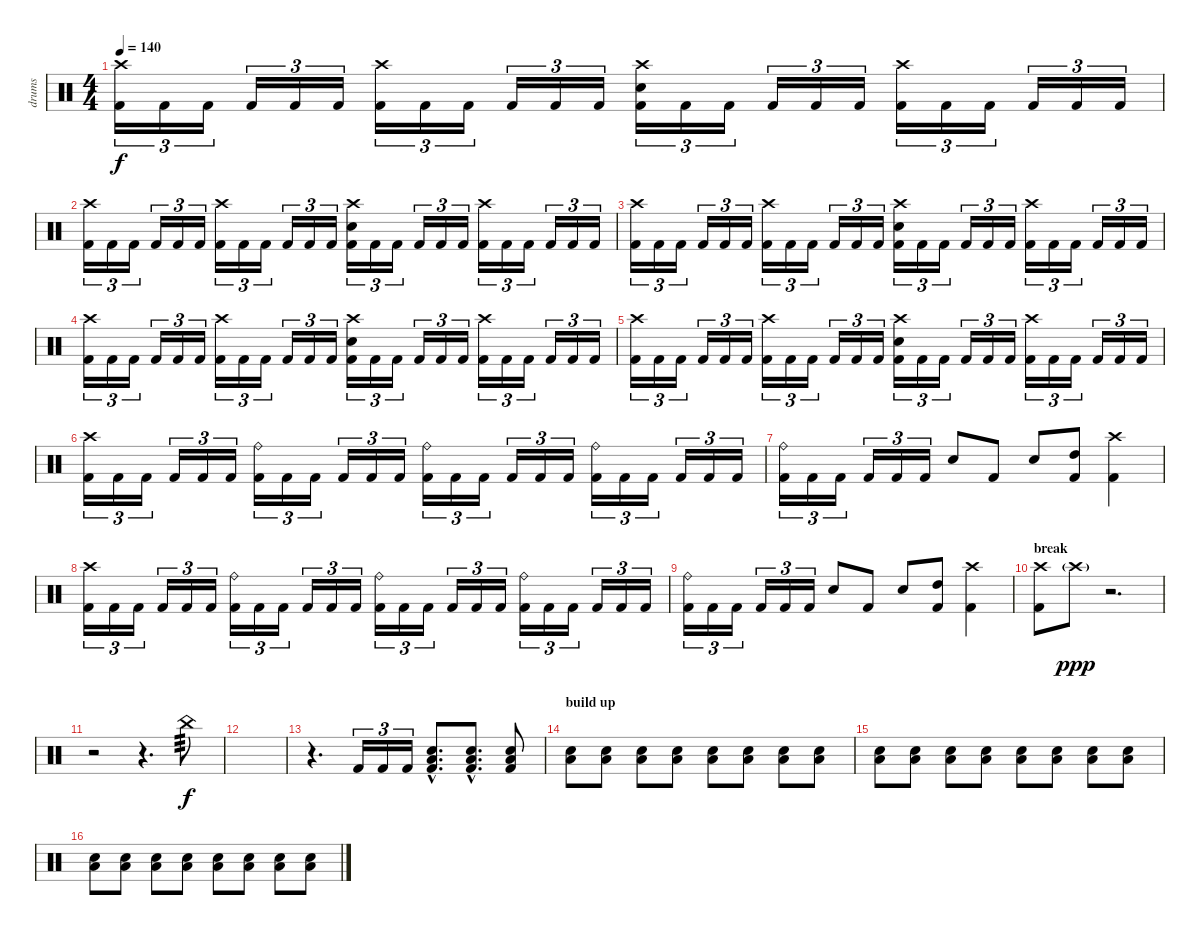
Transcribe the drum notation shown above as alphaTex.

\track ("drums" "drums") {instrument percussion}
\staff {score}
\articulation defaults
\ts (4 4)
\tempo 140
\clef neutral
\ks c
("Crash high (hit)" "Kick (hit) 2").16{tu (3 2) dy f} "Kick (hit) 2".16{tu (3 2)} "Kick (hit) 2".16{tu (3 2)} "Kick (hit) 2".16{tu (3 2)} "Kick (hit) 2".16{tu (3 2)} "Kick (hit) 2".16{tu (3 2)} ("Crash high (hit)" "Kick (hit) 2").16{tu (3 2)} "Kick (hit) 2".16{tu (3 2)} "Kick (hit) 2".16{tu (3 2)} "Kick (hit) 2".16{tu (3 2)} "Kick (hit) 2".16{tu (3 2)} "Kick (hit) 2".16{tu (3 2)} ("Crash high (hit)" "Electric Snare (hit)" "Kick (hit) 2").16{tu (3 2)} "Kick (hit) 2".16{tu (3 2)} "Kick (hit) 2".16{tu (3 2)} "Kick (hit) 2".16{tu (3 2)} "Kick (hit) 2".16{tu (3 2)} "Kick (hit) 2".16{tu (3 2)} ("Crash high (hit)" "Kick (hit) 2").16{tu (3 2)} "Kick (hit) 2".16{tu (3 2)} "Kick (hit) 2".16{tu (3 2)} "Kick (hit) 2".16{tu (3 2)} "Kick (hit) 2".16{tu (3 2)} "Kick (hit) 2".16{tu (3 2)} |
("Crash high (hit)" "Kick (hit) 2").16{tu (3 2)} "Kick (hit) 2".16{tu (3 2)} "Kick (hit) 2".16{tu (3 2)} "Kick (hit) 2".16{tu (3 2)} "Kick (hit) 2".16{tu (3 2)} "Kick (hit) 2".16{tu (3 2)} ("Crash high (hit)" "Kick (hit) 2").16{tu (3 2)} "Kick (hit) 2".16{tu (3 2)} "Kick (hit) 2".16{tu (3 2)} "Kick (hit) 2".16{tu (3 2)} "Kick (hit) 2".16{tu (3 2)} "Kick (hit) 2".16{tu (3 2)} ("Crash high (hit)" "Electric Snare (hit)" "Kick (hit) 2").16{tu (3 2)} "Kick (hit) 2".16{tu (3 2)} "Kick (hit) 2".16{tu (3 2)} "Kick (hit) 2".16{tu (3 2)} "Kick (hit) 2".16{tu (3 2)} "Kick (hit) 2".16{tu (3 2)} ("Crash high (hit)" "Kick (hit) 2").16{tu (3 2)} "Kick (hit) 2".16{tu (3 2)} "Kick (hit) 2".16{tu (3 2)} "Kick (hit) 2".16{tu (3 2)} "Kick (hit) 2".16{tu (3 2)} "Kick (hit) 2".16{tu (3 2)} |
("Crash high (hit)" "Kick (hit) 2").16{tu (3 2)} "Kick (hit) 2".16{tu (3 2)} "Kick (hit) 2".16{tu (3 2)} "Kick (hit) 2".16{tu (3 2)} "Kick (hit) 2".16{tu (3 2)} "Kick (hit) 2".16{tu (3 2)} ("Crash high (hit)" "Kick (hit) 2").16{tu (3 2)} "Kick (hit) 2".16{tu (3 2)} "Kick (hit) 2".16{tu (3 2)} "Kick (hit) 2".16{tu (3 2)} "Kick (hit) 2".16{tu (3 2)} "Kick (hit) 2".16{tu (3 2)} ("Crash high (hit)" "Electric Snare (hit)" "Kick (hit) 2").16{tu (3 2)} "Kick (hit) 2".16{tu (3 2)} "Kick (hit) 2".16{tu (3 2)} "Kick (hit) 2".16{tu (3 2)} "Kick (hit) 2".16{tu (3 2)} "Kick (hit) 2".16{tu (3 2)} ("Crash high (hit)" "Kick (hit) 2").16{tu (3 2)} "Kick (hit) 2".16{tu (3 2)} "Kick (hit) 2".16{tu (3 2)} "Kick (hit) 2".16{tu (3 2)} "Kick (hit) 2".16{tu (3 2)} "Kick (hit) 2".16{tu (3 2)} |
("Crash high (hit)" "Kick (hit) 2").16{tu (3 2)} "Kick (hit) 2".16{tu (3 2)} "Kick (hit) 2".16{tu (3 2)} "Kick (hit) 2".16{tu (3 2)} "Kick (hit) 2".16{tu (3 2)} "Kick (hit) 2".16{tu (3 2)} ("Crash high (hit)" "Kick (hit) 2").16{tu (3 2)} "Kick (hit) 2".16{tu (3 2)} "Kick (hit) 2".16{tu (3 2)} "Kick (hit) 2".16{tu (3 2)} "Kick (hit) 2".16{tu (3 2)} "Kick (hit) 2".16{tu (3 2)} ("Crash high (hit)" "Electric Snare (hit)" "Kick (hit) 2").16{tu (3 2)} "Kick (hit) 2".16{tu (3 2)} "Kick (hit) 2".16{tu (3 2)} "Kick (hit) 2".16{tu (3 2)} "Kick (hit) 2".16{tu (3 2)} "Kick (hit) 2".16{tu (3 2)} ("Crash high (hit)" "Kick (hit) 2").16{tu (3 2)} "Kick (hit) 2".16{tu (3 2)} "Kick (hit) 2".16{tu (3 2)} "Kick (hit) 2".16{tu (3 2)} "Kick (hit) 2".16{tu (3 2)} "Kick (hit) 2".16{tu (3 2)} |
("Crash high (hit)" "Kick (hit) 2").16{tu (3 2)} "Kick (hit) 2".16{tu (3 2)} "Kick (hit) 2".16{tu (3 2)} "Kick (hit) 2".16{tu (3 2)} "Kick (hit) 2".16{tu (3 2)} "Kick (hit) 2".16{tu (3 2)} ("Crash high (hit)" "Kick (hit) 2").16{tu (3 2)} "Kick (hit) 2".16{tu (3 2)} "Kick (hit) 2".16{tu (3 2)} "Kick (hit) 2".16{tu (3 2)} "Kick (hit) 2".16{tu (3 2)} "Kick (hit) 2".16{tu (3 2)} ("Crash high (hit)" "Electric Snare (hit)" "Kick (hit) 2").16{tu (3 2)} "Kick (hit) 2".16{tu (3 2)} "Kick (hit) 2".16{tu (3 2)} "Kick (hit) 2".16{tu (3 2)} "Kick (hit) 2".16{tu (3 2)} "Kick (hit) 2".16{tu (3 2)} ("Crash high (hit)" "Kick (hit) 2").16{tu (3 2)} "Kick (hit) 2".16{tu (3 2)} "Kick (hit) 2".16{tu (3 2)} "Kick (hit) 2".16{tu (3 2)} "Kick (hit) 2".16{tu (3 2)} "Kick (hit) 2".16{tu (3 2)} |
("Crash high (hit)" "Kick (hit) 2").16{tu (3 2)} "Kick (hit) 2".16{tu (3 2)} "Kick (hit) 2".16{tu (3 2)} "Kick (hit) 2".16{tu (3 2)} "Kick (hit) 2".16{tu (3 2)} "Kick (hit) 2".16{tu (3 2)} ("Ride (bell)" "Kick (hit) 2").16{tu (3 2)} "Kick (hit) 2".16{tu (3 2)} "Kick (hit) 2".16{tu (3 2)} "Kick (hit) 2".16{tu (3 2)} "Kick (hit) 2".16{tu (3 2)} "Kick (hit) 2".16{tu (3 2)} ("Ride (bell)" "Kick (hit) 2").16{tu (3 2)} "Kick (hit) 2".16{tu (3 2)} "Kick (hit) 2".16{tu (3 2)} "Kick (hit) 2".16{tu (3 2)} "Kick (hit) 2".16{tu (3 2)} "Kick (hit) 2".16{tu (3 2)} ("Ride (bell)" "Kick (hit) 2").16{tu (3 2)} "Kick (hit) 2".16{tu (3 2)} "Kick (hit) 2".16{tu (3 2)} "Kick (hit) 2".16{tu (3 2)} "Kick (hit) 2".16{tu (3 2)} "Kick (hit) 2".16{tu (3 2)} |
("Ride (bell)" "Kick (hit) 2").16{tu (3 2)} "Kick (hit) 2".16{tu (3 2)} "Kick (hit) 2".16{tu (3 2)} "Kick (hit) 2".16{tu (3 2)} "Kick (hit) 2".16{tu (3 2)} "Kick (hit) 2".16{tu (3 2)} "Electric Snare (hit)".8 "Kick (hit) 2".8 "Electric Snare (hit)".8 ("High Tom (hit)" "Kick (hit) 2").8 ("Crash high (hit)" "Kick (hit) 2").4 |
("Crash high (hit)" "Kick (hit) 2").16{tu (3 2)} "Kick (hit) 2".16{tu (3 2)} "Kick (hit) 2".16{tu (3 2)} "Kick (hit) 2".16{tu (3 2)} "Kick (hit) 2".16{tu (3 2)} "Kick (hit) 2".16{tu (3 2)} ("Ride (bell)" "Kick (hit) 2").16{tu (3 2)} "Kick (hit) 2".16{tu (3 2)} "Kick (hit) 2".16{tu (3 2)} "Kick (hit) 2".16{tu (3 2)} "Kick (hit) 2".16{tu (3 2)} "Kick (hit) 2".16{tu (3 2)} ("Ride (bell)" "Kick (hit) 2").16{tu (3 2)} "Kick (hit) 2".16{tu (3 2)} "Kick (hit) 2".16{tu (3 2)} "Kick (hit) 2".16{tu (3 2)} "Kick (hit) 2".16{tu (3 2)} "Kick (hit) 2".16{tu (3 2)} ("Ride (bell)" "Kick (hit) 2").16{tu (3 2)} "Kick (hit) 2".16{tu (3 2)} "Kick (hit) 2".16{tu (3 2)} "Kick (hit) 2".16{tu (3 2)} "Kick (hit) 2".16{tu (3 2)} "Kick (hit) 2".16{tu (3 2)} |
("Ride (bell)" "Kick (hit) 2").16{tu (3 2)} "Kick (hit) 2".16{tu (3 2)} "Kick (hit) 2".16{tu (3 2)} "Kick (hit) 2".16{tu (3 2)} "Kick (hit) 2".16{tu (3 2)} "Kick (hit) 2".16{tu (3 2)} "Electric Snare (hit)".8 "Kick (hit) 2".8 "Electric Snare (hit)".8 ("High Tom (hit)" "Kick (hit) 2").8 ("Crash high (hit)" "Kick (hit) 2").4 |
\section ("" "break")
("Crash high (hit)"{pm} "Kick (hit) 2").8 "Crash high (hit)"{g}.8{dy ppp} r.2{d} |
r.2 r.4{d} "China (hit)".8{tp 3 dy f} |
|
r.4{d} "Kick (hit) 2".16{tu (3 2)} "Kick (hit) 2".16{tu (3 2)} "Kick (hit) 2".16{tu (3 2)} ("Electric Snare (hit)"{hac} "Low Floor Tom (hit)"{hac} "Kick (hit) 2"{hac}).8{d} ("Electric Snare (hit)"{hac} "Low Floor Tom (hit)"{hac} "Kick (hit) 2"{hac}).8{d} ("Electric Snare (hit)" "Low Floor Tom (hit)" "Kick (hit) 2").8 |
\section ("" "build up")
("Electric Snare (hit)" "Low Floor Tom (hit)").8{volume 6} ("Electric Snare (hit)" "Low Floor Tom (hit)").8{volume 16} ("Electric Snare (hit)" "Low Floor Tom (hit)").8 ("Electric Snare (hit)" "Low Floor Tom (hit)").8 ("Electric Snare (hit)" "Low Floor Tom (hit)").8 ("Electric Snare (hit)" "Low Floor Tom (hit)").8 ("Electric Snare (hit)" "Low Floor Tom (hit)").8 ("Electric Snare (hit)" "Low Floor Tom (hit)").8 |
("Electric Snare (hit)" "Low Floor Tom (hit)").8 ("Electric Snare (hit)" "Low Floor Tom (hit)").8 ("Electric Snare (hit)" "Low Floor Tom (hit)").8 ("Electric Snare (hit)" "Low Floor Tom (hit)").8 ("Electric Snare (hit)" "Low Floor Tom (hit)").8 ("Electric Snare (hit)" "Low Floor Tom (hit)").8 ("Electric Snare (hit)" "Low Floor Tom (hit)").8 ("Electric Snare (hit)" "Low Floor Tom (hit)").8 |
("Electric Snare (hit)" "Low Floor Tom (hit)").8 ("Electric Snare (hit)" "Low Floor Tom (hit)").8 ("Electric Snare (hit)" "Low Floor Tom (hit)").8 ("Electric Snare (hit)" "Low Floor Tom (hit)").8 ("Electric Snare (hit)" "Low Floor Tom (hit)").8 ("Electric Snare (hit)" "Low Floor Tom (hit)").8 ("Electric Snare (hit)" "Low Floor Tom (hit)").8 ("Electric Snare (hit)" "Low Floor Tom (hit)").8
